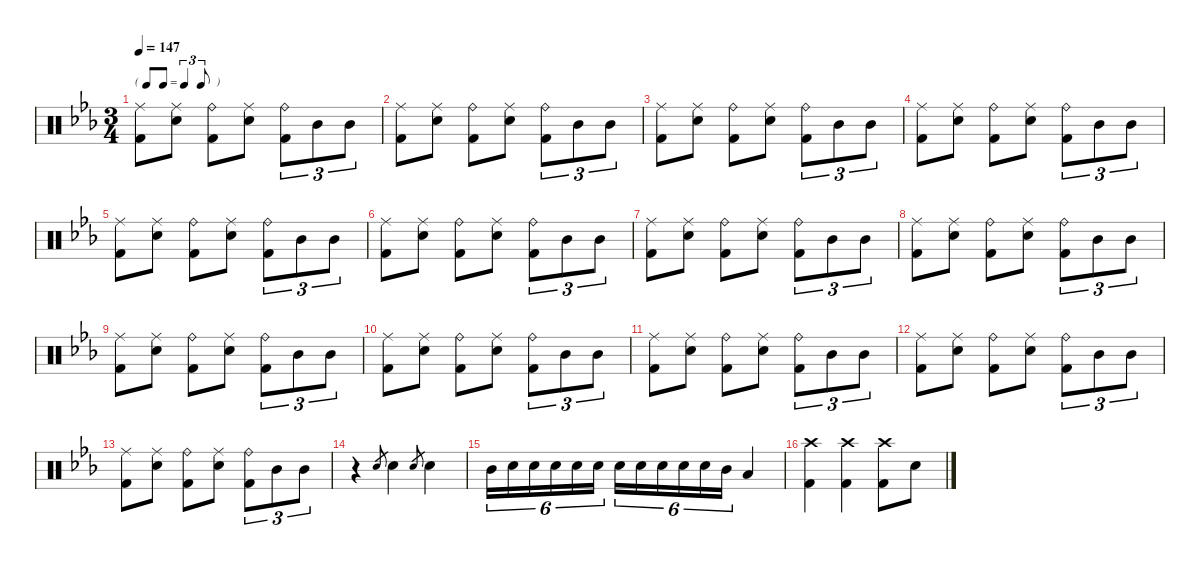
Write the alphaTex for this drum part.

\defaultSystemsLayout 4
\hideDynamics
\bracketExtendMode nobrackets
\singleTrackTrackNamePolicy hidden
\multiTrackTrackNamePolicy hidden
\firstSystemTrackNameMode fullname
\firstSystemTrackNameOrientation horizontal
\otherSystemsTrackNameOrientation horizontal
\track ("Percussion" "drm.") {defaultSystemsLayout 8 instrument percussion}
\staff {score}
\articulation defaults
\ts (3 4)
\tf triplet8th
\tempo 147
\clef neutral
\ks eb
("Ride (middle)"{acc forcenatural} "Kick (hit) 2"{acc forcenatural}).8{dy f beam Down} ("Ride (middle)"{acc forcenatural} "Snare (hit) 2"{acc forcenatural}).8{beam Down} ("Ride (bell)"{acc forcenatural} "Kick (hit) 2"{acc forcenatural}).8{beam Down} ("Ride (middle)"{acc forcenatural} "Snare (hit) 2"{acc forcenatural}).8{beam Down} ("Ride (bell)"{acc forcenatural} "Kick (hit) 2"{acc forcenatural}).8{tu (3 2) beam Down} "Mid Tom (hit)"{acc forcenatural}.8{tu (3 2) beam Down} "Mid Tom (hit)"{acc forcenatural}.8{tu (3 2) beam Down} |
("Ride (middle)"{acc forcenatural} "Kick (hit) 2"{acc forcenatural}).8{beam Down} ("Ride (middle)"{acc forcenatural} "Snare (hit) 2"{acc forcenatural}).8{beam Down} ("Ride (bell)"{acc forcenatural} "Kick (hit) 2"{acc forcenatural}).8{beam Down} ("Ride (middle)"{acc forcenatural} "Snare (hit) 2"{acc forcenatural}).8{beam Down} ("Ride (bell)"{acc forcenatural} "Kick (hit) 2"{acc forcenatural}).8{tu (3 2) beam Down} "Mid Tom (hit)"{acc forcenatural}.8{tu (3 2) beam Down} "Mid Tom (hit)"{acc forcenatural}.8{tu (3 2) beam Down} |
("Ride (middle)"{acc forcenatural} "Kick (hit) 2"{acc forcenatural}).8{beam Down} ("Ride (middle)"{acc forcenatural} "Snare (hit) 2"{acc forcenatural}).8{beam Down} ("Ride (bell)"{acc forcenatural} "Kick (hit) 2"{acc forcenatural}).8{beam Down} ("Ride (middle)"{acc forcenatural} "Snare (hit) 2"{acc forcenatural}).8{beam Down} ("Ride (bell)"{acc forcenatural} "Kick (hit) 2"{acc forcenatural}).8{tu (3 2) beam Down} "Mid Tom (hit)"{acc forcenatural}.8{tu (3 2) beam Down} "Mid Tom (hit)"{acc forcenatural}.8{tu (3 2) beam Down} |
("Ride (middle)"{acc forcenatural} "Kick (hit) 2"{acc forcenatural}).8{beam Down} ("Ride (middle)"{acc forcenatural} "Snare (hit) 2"{acc forcenatural}).8{beam Down} ("Ride (bell)"{acc forcenatural} "Kick (hit) 2"{acc forcenatural}).8{beam Down} ("Ride (middle)"{acc forcenatural} "Snare (hit) 2"{acc forcenatural}).8{beam Down} ("Ride (bell)"{acc forcenatural} "Kick (hit) 2"{acc forcenatural}).8{tu (3 2) beam Down} "Mid Tom (hit)"{acc forcenatural}.8{tu (3 2) beam Down} "Mid Tom (hit)"{acc forcenatural}.8{tu (3 2) beam Down} |
("Ride (middle)"{acc forcenatural} "Kick (hit) 2"{acc forcenatural}).8{beam Down} ("Ride (middle)"{acc forcenatural} "Snare (hit) 2"{acc forcenatural}).8{beam Down} ("Ride (bell)"{acc forcenatural} "Kick (hit) 2"{acc forcenatural}).8{beam Down} ("Ride (middle)"{acc forcenatural} "Snare (hit) 2"{acc forcenatural}).8{beam Down} ("Ride (bell)"{acc forcenatural} "Kick (hit) 2"{acc forcenatural}).8{tu (3 2) beam Down} "Mid Tom (hit)"{acc forcenatural}.8{tu (3 2) beam Down} "Mid Tom (hit)"{acc forcenatural}.8{tu (3 2) beam Down} |
("Ride (middle)"{acc forcenatural} "Kick (hit) 2"{acc forcenatural}).8{beam Down} ("Ride (middle)"{acc forcenatural} "Snare (hit) 2"{acc forcenatural}).8{beam Down} ("Ride (bell)"{acc forcenatural} "Kick (hit) 2"{acc forcenatural}).8{beam Down} ("Ride (middle)"{acc forcenatural} "Snare (hit) 2"{acc forcenatural}).8{beam Down} ("Ride (bell)"{acc forcenatural} "Kick (hit) 2"{acc forcenatural}).8{tu (3 2) beam Down} "Mid Tom (hit)"{acc forcenatural}.8{tu (3 2) beam Down} "Mid Tom (hit)"{acc forcenatural}.8{tu (3 2) beam Down} |
("Ride (middle)"{acc forcenatural} "Kick (hit) 2"{acc forcenatural}).8{beam Down} ("Ride (middle)"{acc forcenatural} "Snare (hit) 2"{acc forcenatural}).8{beam Down} ("Ride (bell)"{acc forcenatural} "Kick (hit) 2"{acc forcenatural}).8{beam Down} ("Ride (middle)"{acc forcenatural} "Snare (hit) 2"{acc forcenatural}).8{beam Down} ("Ride (bell)"{acc forcenatural} "Kick (hit) 2"{acc forcenatural}).8{tu (3 2) beam Down} "Mid Tom (hit)"{acc forcenatural}.8{tu (3 2) beam Down} "Mid Tom (hit)"{acc forcenatural}.8{tu (3 2) beam Down} |
("Ride (middle)"{acc forcenatural} "Kick (hit) 2"{acc forcenatural}).8{beam Down} ("Ride (middle)"{acc forcenatural} "Snare (hit) 2"{acc forcenatural}).8{beam Down} ("Ride (bell)"{acc forcenatural} "Kick (hit) 2"{acc forcenatural}).8{beam Down} ("Ride (middle)"{acc forcenatural} "Snare (hit) 2"{acc forcenatural}).8{beam Down} ("Ride (bell)"{acc forcenatural} "Kick (hit) 2"{acc forcenatural}).8{tu (3 2) beam Down} "Mid Tom (hit)"{acc forcenatural}.8{tu (3 2) beam Down} "Mid Tom (hit)"{acc forcenatural}.8{tu (3 2) beam Down} |
("Ride (middle)"{acc forcenatural} "Kick (hit) 2"{acc forcenatural}).8{beam Down} ("Ride (middle)"{acc forcenatural} "Snare (hit) 2"{acc forcenatural}).8{beam Down} ("Ride (bell)"{acc forcenatural} "Kick (hit) 2"{acc forcenatural}).8{beam Down} ("Ride (middle)"{acc forcenatural} "Snare (hit) 2"{acc forcenatural}).8{beam Down} ("Ride (bell)"{acc forcenatural} "Kick (hit) 2"{acc forcenatural}).8{tu (3 2) beam Down} "Mid Tom (hit)"{acc forcenatural}.8{tu (3 2) beam Down} "Mid Tom (hit)"{acc forcenatural}.8{tu (3 2) beam Down} |
("Ride (middle)"{acc forcenatural} "Kick (hit) 2"{acc forcenatural}).8{beam Down} ("Ride (middle)"{acc forcenatural} "Snare (hit) 2"{acc forcenatural}).8{beam Down} ("Ride (bell)"{acc forcenatural} "Kick (hit) 2"{acc forcenatural}).8{beam Down} ("Ride (middle)"{acc forcenatural} "Snare (hit) 2"{acc forcenatural}).8{beam Down} ("Ride (bell)"{acc forcenatural} "Kick (hit) 2"{acc forcenatural}).8{tu (3 2) beam Down} "Mid Tom (hit)"{acc forcenatural}.8{tu (3 2) beam Down} "Mid Tom (hit)"{acc forcenatural}.8{tu (3 2) beam Down} |
("Ride (middle)"{acc forcenatural} "Kick (hit) 2"{acc forcenatural}).8{beam Down} ("Ride (middle)"{acc forcenatural} "Snare (hit) 2"{acc forcenatural}).8{beam Down} ("Ride (bell)"{acc forcenatural} "Kick (hit) 2"{acc forcenatural}).8{beam Down} ("Ride (middle)"{acc forcenatural} "Snare (hit) 2"{acc forcenatural}).8{beam Down} ("Ride (bell)"{acc forcenatural} "Kick (hit) 2"{acc forcenatural}).8{tu (3 2) beam Down} "Mid Tom (hit)"{acc forcenatural}.8{tu (3 2) beam Down} "Mid Tom (hit)"{acc forcenatural}.8{tu (3 2) beam Down} |
("Ride (middle)"{acc forcenatural} "Kick (hit) 2"{acc forcenatural}).8{beam Down} ("Ride (middle)"{acc forcenatural} "Snare (hit) 2"{acc forcenatural}).8{beam Down} ("Ride (bell)"{acc forcenatural} "Kick (hit) 2"{acc forcenatural}).8{beam Down} ("Ride (middle)"{acc forcenatural} "Snare (hit) 2"{acc forcenatural}).8{beam Down} ("Ride (bell)"{acc forcenatural} "Kick (hit) 2"{acc forcenatural}).8{tu (3 2) beam Down} "Mid Tom (hit)"{acc forcenatural}.8{tu (3 2) beam Down} "Mid Tom (hit)"{acc forcenatural}.8{tu (3 2) beam Down} |
("Ride (middle)"{acc forcenatural} "Kick (hit) 2"{acc forcenatural}).8{beam Down} ("Ride (middle)"{acc forcenatural} "Snare (hit) 2"{acc forcenatural}).8{beam Down} ("Ride (bell)"{acc forcenatural} "Kick (hit) 2"{acc forcenatural}).8{beam Down} ("Ride (middle)"{acc forcenatural} "Snare (hit) 2"{acc forcenatural}).8{beam Down} ("Ride (bell)"{acc forcenatural} "Kick (hit) 2"{acc forcenatural}).8{tu (3 2) beam Down} "Mid Tom (hit)"{acc forcenatural}.8{tu (3 2) beam Down} "Mid Tom (hit)"{acc forcenatural}.8{tu (3 2) beam Down} |
r.4{beam Down} "Snare (hit) 2"{acc forcenatural}.8{gr dy mf beam Up} "Snare (hit) 2"{acc forcenatural}.4{dy f beam Down} "Snare (hit) 2"{acc forcenatural}.8{gr dy mf beam Up} "Snare (hit) 2"{acc forcenatural}.4{dy f beam Down} |
"Mid Tom (hit)"{acc forcenatural}.16{tu (6 4) beam Down} "Snare (hit) 2"{acc forcenatural}.16{tu (6 4) beam Down} "Snare (hit) 2"{acc forcenatural}.16{tu (6 4) beam Down} "Snare (hit) 2"{acc forcenatural}.16{tu (6 4) beam Down} "Snare (hit) 2"{acc forcenatural}.16{tu (6 4) beam Down} "Snare (hit) 2"{acc forcenatural}.16{tu (6 4) beam Down} "Snare (hit) 2"{acc forcenatural}.16{tu (6 4) beam Down} "Snare (hit) 2"{acc forcenatural}.16{tu (6 4) beam Down} "Snare (hit) 2"{acc forcenatural}.16{tu (6 4) beam Down} "Snare (hit) 2"{acc forcenatural}.16{tu (6 4) beam Down} "Snare (hit) 2"{acc forcenatural}.16{tu (6 4) beam Down} "Mid Tom (hit)"{acc forcenatural}.16{tu (6 4) beam Down} "Low Tom (hit)"{acc forcenatural}.4{beam Up} |
("Crash high (hit)"{acc forcenatural} "Kick (hit) 2"{acc forcenatural}).4{beam Down} ("Crash high (hit)"{acc forcenatural} "Kick (hit) 2"{acc forcenatural}).4{beam Down} ("Crash high (hit)"{acc forcenatural} "Kick (hit) 2"{acc forcenatural}).8{beam Down} "Snare (hit) 2"{acc forcenatural}.8{beam Down}
